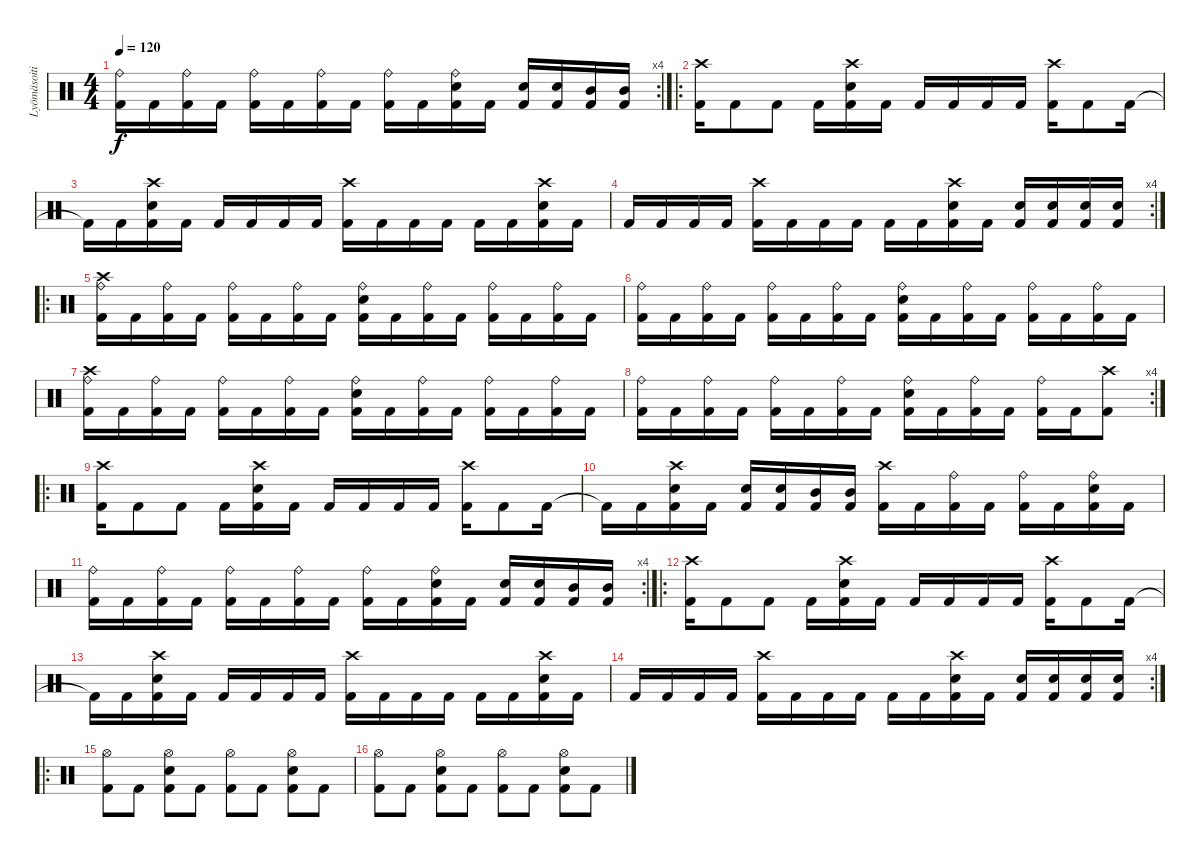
\track ("Lyömäsoitin" "Lyömäsoiti") {instrument percussion}
\staff {score}
\articulation defaults
\rc 4
\ts (4 4)
\tempo 120
\clef neutral
\ks c
("Kick (hit) 2" "Ride (bell)").16{dy f} "Kick (hit) 2".16 ("Kick (hit) 2" "Ride (bell)").16 "Kick (hit) 2".16 ("Kick (hit) 2" "Ride (bell)").16 "Kick (hit) 2".16 ("Kick (hit) 2" "Ride (bell)").16 "Kick (hit) 2".16 ("Kick (hit) 2" "Ride (bell)").16 "Kick (hit) 2".16 ("Kick (hit) 2" "Ride (bell)" "Electric Snare (hit)").16 "Kick (hit) 2".16 ("Kick (hit) 2" "Electric Snare (hit)").16 ("Kick (hit) 2" "Electric Snare (hit)").16 ("Kick (hit) 2" "Mid Tom (hit)").16 ("Kick (hit) 2" "Mid Tom (hit)").16 |
\ro
("Kick (hit) 2" "Crash high (hit)").16 "Kick (hit) 2".8 "Kick (hit) 2".8 "Kick (hit) 2".16 ("Kick (hit) 2" "Crash high (hit)" "Electric Snare (hit)").16 "Kick (hit) 2".16 "Kick (hit) 2".16 "Kick (hit) 2".16 "Kick (hit) 2".16 "Kick (hit) 2".16 ("Kick (hit) 2" "Crash high (hit)").16 "Kick (hit) 2".8 "Kick (hit) 2".16 |
"Kick (hit) 2"{t}.16 "Kick (hit) 2".16 ("Kick (hit) 2" "Crash high (hit)" "Electric Snare (hit)").16 "Kick (hit) 2".16 "Kick (hit) 2".16 "Kick (hit) 2".16 "Kick (hit) 2".16 "Kick (hit) 2".16 ("Kick (hit) 2" "Crash high (hit)").16 "Kick (hit) 2".16 "Kick (hit) 2".16 "Kick (hit) 2".16 "Kick (hit) 2".16 "Kick (hit) 2".16 ("Kick (hit) 2" "Crash high (hit)" "Electric Snare (hit)").16 "Kick (hit) 2".16 |
\rc 4 "Kick (hit) 2".16 "Kick (hit) 2".16 "Kick (hit) 2".16 "Kick (hit) 2".16
("Kick (hit) 2" "Crash high (hit)").16 "Kick (hit) 2".16 "Kick (hit) 2".16 "Kick (hit) 2".16 "Kick (hit) 2".16 "Kick (hit) 2".16 ("Kick (hit) 2" "Crash high (hit)" "Electric Snare (hit)").16 "Kick (hit) 2".16 ("Kick (hit) 2" "Electric Snare (hit)").16 ("Kick (hit) 2" "Electric Snare (hit)").16 ("Kick (hit) 2" "Electric Snare (hit)").16 ("Kick (hit) 2" "Electric Snare (hit)").16 |
\ro
("Kick (hit) 2" "Ride (bell)" "Crash high (hit)").16 "Kick (hit) 2".16 ("Kick (hit) 2" "Ride (bell)").16 "Kick (hit) 2".16 ("Kick (hit) 2" "Ride (bell)").16 "Kick (hit) 2".16 ("Kick (hit) 2" "Ride (bell)").16 "Kick (hit) 2".16 ("Kick (hit) 2" "Ride (bell)" "Electric Snare (hit)").16 "Kick (hit) 2".16 ("Kick (hit) 2" "Ride (bell)").16 "Kick (hit) 2".16 ("Kick (hit) 2" "Ride (bell)").16 "Kick (hit) 2".16 ("Kick (hit) 2" "Ride (bell)").16 "Kick (hit) 2".16 |
("Kick (hit) 2" "Ride (bell)").16 "Kick (hit) 2".16 ("Kick (hit) 2" "Ride (bell)").16 "Kick (hit) 2".16 ("Kick (hit) 2" "Ride (bell)").16 "Kick (hit) 2".16 ("Kick (hit) 2" "Ride (bell)").16 "Kick (hit) 2".16 ("Kick (hit) 2" "Ride (bell)" "Electric Snare (hit)").16 "Kick (hit) 2".16 ("Kick (hit) 2" "Ride (bell)").16 "Kick (hit) 2".16 ("Kick (hit) 2" "Ride (bell)").16 "Kick (hit) 2".16 ("Kick (hit) 2" "Ride (bell)").16 "Kick (hit) 2".16 |
("Kick (hit) 2" "Ride (bell)" "Crash high (hit)").16 "Kick (hit) 2".16 ("Kick (hit) 2" "Ride (bell)").16 "Kick (hit) 2".16 ("Kick (hit) 2" "Ride (bell)").16 "Kick (hit) 2".16 ("Kick (hit) 2" "Ride (bell)").16 "Kick (hit) 2".16 ("Kick (hit) 2" "Ride (bell)" "Electric Snare (hit)").16 "Kick (hit) 2".16 ("Kick (hit) 2" "Ride (bell)").16 "Kick (hit) 2".16 ("Kick (hit) 2" "Ride (bell)").16 "Kick (hit) 2".16 ("Kick (hit) 2" "Ride (bell)").16 "Kick (hit) 2".16 |
\rc 4
("Kick (hit) 2" "Ride (bell)").16 "Kick (hit) 2".16 ("Kick (hit) 2" "Ride (bell)").16 "Kick (hit) 2".16 ("Kick (hit) 2" "Ride (bell)").16 "Kick (hit) 2".16 ("Kick (hit) 2" "Ride (bell)").16 "Kick (hit) 2".16 ("Kick (hit) 2" "Ride (bell)" "Electric Snare (hit)").16 "Kick (hit) 2".16 ("Kick (hit) 2" "Ride (bell)").16 "Kick (hit) 2".16 ("Kick (hit) 2" "Ride (bell)").16 "Kick (hit) 2".16 ("Kick (hit) 2" "Crash high (hit)").8 |
\ro
("Kick (hit) 2" "Crash high (hit)").16 "Kick (hit) 2".8 "Kick (hit) 2".8 "Kick (hit) 2".16 ("Kick (hit) 2" "Crash high (hit)" "Electric Snare (hit)").16 "Kick (hit) 2".16 "Kick (hit) 2".16 "Kick (hit) 2".16 "Kick (hit) 2".16 "Kick (hit) 2".16 ("Kick (hit) 2" "Crash high (hit)").16 "Kick (hit) 2".8 "Kick (hit) 2".16 |
"Kick (hit) 2"{t}.16 "Kick (hit) 2".16 ("Kick (hit) 2" "Crash high (hit)" "Electric Snare (hit)").16 "Kick (hit) 2".16 ("Kick (hit) 2" "Electric Snare (hit)").16 ("Kick (hit) 2" "Electric Snare (hit)").16 ("Kick (hit) 2" "Mid Tom (hit)").16 ("Kick (hit) 2" "Mid Tom (hit)").16 ("Kick (hit) 2" "Crash high (hit)").16 "Kick (hit) 2".16 ("Kick (hit) 2" "Ride (bell)").16 "Kick (hit) 2".16 ("Kick (hit) 2" "Ride (bell)").16 "Kick (hit) 2".16 ("Kick (hit) 2" "Ride (bell)" "Electric Snare (hit)").16 "Kick (hit) 2".16 |
\rc 4
("Kick (hit) 2" "Ride (bell)").16 "Kick (hit) 2".16 ("Kick (hit) 2" "Ride (bell)").16 "Kick (hit) 2".16 ("Kick (hit) 2" "Ride (bell)").16 "Kick (hit) 2".16 ("Kick (hit) 2" "Ride (bell)").16 "Kick (hit) 2".16 ("Kick (hit) 2" "Ride (bell)").16 "Kick (hit) 2".16 ("Kick (hit) 2" "Ride (bell)" "Electric Snare (hit)").16 "Kick (hit) 2".16 ("Kick (hit) 2" "Electric Snare (hit)").16 ("Kick (hit) 2" "Electric Snare (hit)").16 ("Kick (hit) 2" "Mid Tom (hit)").16 ("Kick (hit) 2" "Mid Tom (hit)").16 |
\ro
("Kick (hit) 2" "Crash high (hit)").16 "Kick (hit) 2".8 "Kick (hit) 2".8 "Kick (hit) 2".16 ("Kick (hit) 2" "Crash high (hit)" "Electric Snare (hit)").16 "Kick (hit) 2".16 "Kick (hit) 2".16 "Kick (hit) 2".16 "Kick (hit) 2".16 "Kick (hit) 2".16 ("Kick (hit) 2" "Crash high (hit)").16 "Kick (hit) 2".8 "Kick (hit) 2".16 |
"Kick (hit) 2"{t}.16 "Kick (hit) 2".16 ("Kick (hit) 2" "Crash high (hit)" "Electric Snare (hit)").16 "Kick (hit) 2".16 "Kick (hit) 2".16 "Kick (hit) 2".16 "Kick (hit) 2".16 "Kick (hit) 2".16 ("Kick (hit) 2" "Crash high (hit)").16 "Kick (hit) 2".16 "Kick (hit) 2".16 "Kick (hit) 2".16 "Kick (hit) 2".16 "Kick (hit) 2".16 ("Kick (hit) 2" "Crash high (hit)" "Electric Snare (hit)").16 "Kick (hit) 2".16 |
\rc 4 "Kick (hit) 2".16 "Kick (hit) 2".16 "Kick (hit) 2".16 "Kick (hit) 2".16
("Kick (hit) 2" "Crash high (hit)").16 "Kick (hit) 2".16 "Kick (hit) 2".16 "Kick (hit) 2".16 "Kick (hit) 2".16 "Kick (hit) 2".16 ("Kick (hit) 2" "Crash high (hit)" "Electric Snare (hit)").16 "Kick (hit) 2".16 ("Kick (hit) 2" "Electric Snare (hit)").16 ("Kick (hit) 2" "Electric Snare (hit)").16 ("Kick (hit) 2" "Electric Snare (hit)").16 ("Kick (hit) 2" "Electric Snare (hit)").16 |
\ro
("Kick (hit) 2" "Hi-Hat (open)").8 "Kick (hit) 2".8 ("Kick (hit) 2" "Hi-Hat (open)" "Electric Snare (hit)").8 "Kick (hit) 2".8 ("Kick (hit) 2" "Hi-Hat (open)").8 "Kick (hit) 2".8 ("Kick (hit) 2" "Hi-Hat (open)" "Electric Snare (hit)").8 "Kick (hit) 2".8 |
("Kick (hit) 2" "Hi-Hat (open)").8 "Kick (hit) 2".8 ("Kick (hit) 2" "Hi-Hat (open)" "Electric Snare (hit)").8 "Kick (hit) 2".8 ("Kick (hit) 2" "Hi-Hat (open)").8 "Kick (hit) 2".8 ("Kick (hit) 2" "Hi-Hat (open)" "Electric Snare (hit)").8 "Kick (hit) 2".8
